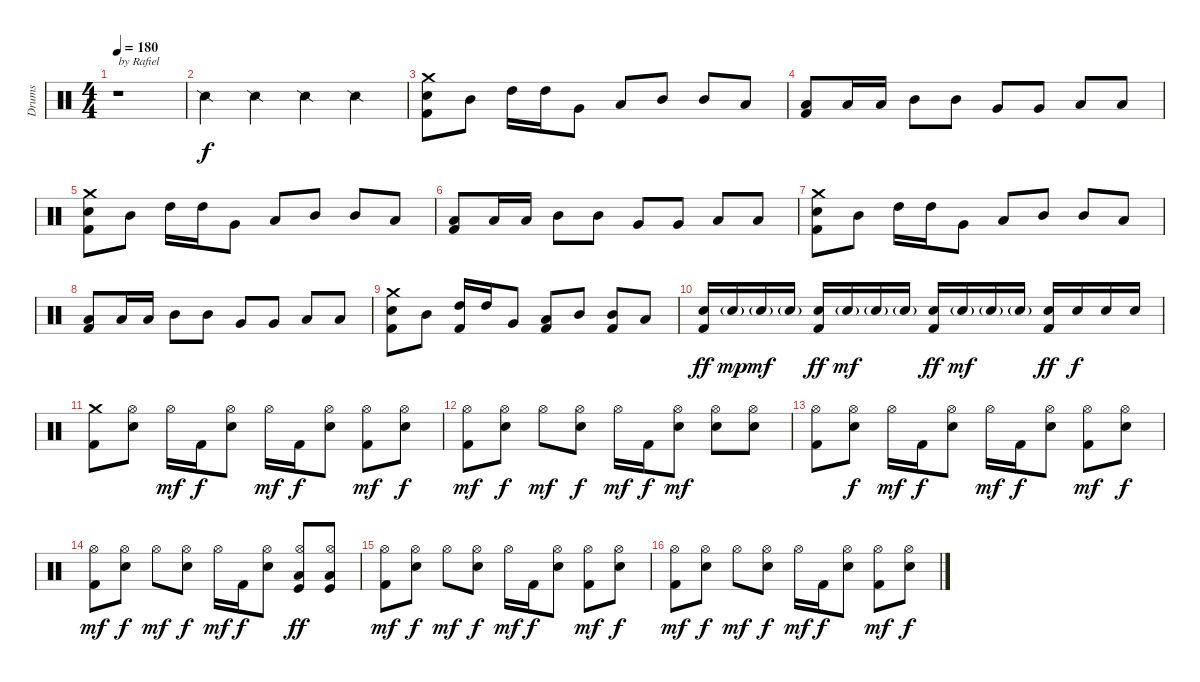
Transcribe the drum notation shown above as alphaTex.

\track ("Drums" "Drums") {instrument percussion}
\staff {score}
\articulation defaults
\ts (4 4)
\tempo 180
\clef neutral
\ks c
r.1{txt "by Rafiel" dy f} |
"Snare (side stick) 2".4 "Snare (side stick) 2".4 "Snare (side stick) 2".4 "Snare (side stick) 2".4 |
("Crash medium (hit)" "Electric Snare (hit)" "Kick (hit) 2").8 "Mid Tom (hit)".8 "High Tom (hit)".16 "High Tom (hit)".16 "Very Low Tom (hit)".8 "Low Tom (hit)".8 "Mid Tom (hit)".8 "Mid Tom (hit)".8 "Low Tom (hit)".8 |
("Low Tom (hit)" "Kick (hit) 2").8 "Low Tom (hit)".16 "Low Tom (hit)".16 "Mid Tom (hit)".8 "Mid Tom (hit)".8 "Very Low Tom (hit)".8 "Very Low Tom (hit)".8 "Low Tom (hit)".8 "Low Tom (hit)".8 |
("Crash medium (hit)" "Electric Snare (hit)" "Kick (hit) 2").8 "Mid Tom (hit)".8 "High Tom (hit)".16 "High Tom (hit)".16 "Very Low Tom (hit)".8 "Low Tom (hit)".8 "Mid Tom (hit)".8 "Mid Tom (hit)".8 "Low Tom (hit)".8 |
("Low Tom (hit)" "Kick (hit) 2").8 "Low Tom (hit)".16 "Low Tom (hit)".16 "Mid Tom (hit)".8 "Mid Tom (hit)".8 "Very Low Tom (hit)".8 "Very Low Tom (hit)".8 "Low Tom (hit)".8 "Low Tom (hit)".8 |
("Crash medium (hit)" "Electric Snare (hit)" "Kick (hit) 2").8 "Mid Tom (hit)".8 "High Tom (hit)".16 "High Tom (hit)".16 "Very Low Tom (hit)".8 "Low Tom (hit)".8 "Mid Tom (hit)".8 "Mid Tom (hit)".8 "Low Tom (hit)".8 |
("Low Tom (hit)" "Kick (hit) 2").8 "Low Tom (hit)".16 "Low Tom (hit)".16 "Mid Tom (hit)".8 "Mid Tom (hit)".8 "Very Low Tom (hit)".8 "Very Low Tom (hit)".8 "Low Tom (hit)".8 "Low Tom (hit)".8 |
("Crash medium (hit)" "Electric Snare (hit)" "Kick (hit) 2").8 "Mid Tom (hit)".8 ("High Tom (hit)" "Kick (hit) 2").16 "High Tom (hit)".16 "Very Low Tom (hit)".8 ("Low Tom (hit)" "Kick (hit) 2").8 "Mid Tom (hit)".8 ("Mid Tom (hit)" "Kick (hit) 2").8 "Low Tom (hit)".8 |
("Electric Snare (hit)" "Kick (hit) 2").16{dy ff} "Electric Snare (hit)"{g}.16{dy mp} "Electric Snare (hit)"{g}.16{dy mf} "Electric Snare (hit)"{g}.16 ("Electric Snare (hit)" "Kick (hit) 2").16{dy ff} "Electric Snare (hit)"{g}.16{dy mf} "Electric Snare (hit)"{g}.16 "Electric Snare (hit)"{g}.16 ("Electric Snare (hit)" "Kick (hit) 2").16{dy ff} "Electric Snare (hit)"{g}.16{dy mf} "Electric Snare (hit)"{g}.16 "Electric Snare (hit)"{g}.16 ("Electric Snare (hit)" "Kick (hit) 2").16{dy ff} "Electric Snare (hit)".16{dy f} "Electric Snare (hit)".16 "Electric Snare (hit)".16 |
("Crash medium (hit)" "Kick (hit) 2").8 ("Hi-Hat (open)" "Electric Snare (hit)").8 "Hi-Hat (open)".16{dy mf} "Kick (hit) 2".16{dy f} ("Hi-Hat (open)" "Electric Snare (hit)").8 "Hi-Hat (open)".16{dy mf} "Kick (hit) 2".16{dy f} ("Hi-Hat (open)" "Electric Snare (hit)").8 ("Hi-Hat (open)" "Kick (hit) 2").8{dy mf} ("Hi-Hat (open)" "Electric Snare (hit)").8{dy f} |
("Hi-Hat (open)" "Kick (hit) 2").8{dy mf} ("Hi-Hat (open)" "Electric Snare (hit)").8{dy f} "Hi-Hat (open)".8{dy mf} ("Hi-Hat (open)" "Electric Snare (hit)").8{dy f} "Hi-Hat (open)".16{dy mf} "Kick (hit) 2".16{dy f} ("Hi-Hat (open)" "Electric Snare (hit)").8{dy mf} ("Hi-Hat (open)" "Electric Snare (hit)").8 ("Hi-Hat (open)" "Electric Snare (hit)").8 |
("Hi-Hat (open)" "Kick (hit) 2").8 ("Hi-Hat (open)" "Electric Snare (hit)").8{dy f} "Hi-Hat (open)".16{dy mf} "Kick (hit) 2".16{dy f} ("Hi-Hat (open)" "Electric Snare (hit)").8 "Hi-Hat (open)".16{dy mf} "Kick (hit) 2".16{dy f} ("Hi-Hat (open)" "Electric Snare (hit)").8 ("Hi-Hat (open)" "Kick (hit) 2").8{dy mf} ("Hi-Hat (open)" "Electric Snare (hit)").8{dy f} |
("Hi-Hat (open)" "Kick (hit) 2").8{dy mf} ("Hi-Hat (open)" "Electric Snare (hit)").8{dy f} "Hi-Hat (open)".8{dy mf} ("Hi-Hat (open)" "Electric Snare (hit)").8{dy f} "Hi-Hat (open)".16{dy mf} "Kick (hit) 2".16{dy f} ("Hi-Hat (open)" "Electric Snare (hit)").8 ("Hi-Hat (open)" "Low Tom (hit)" "Kick (hit)").8{dy ff} ("Hi-Hat (open)" "Low Tom (hit)" "Kick (hit)").8 |
("Hi-Hat (open)" "Kick (hit) 2").8{dy mf} ("Hi-Hat (open)" "Electric Snare (hit)").8{dy f} "Hi-Hat (open)".8{dy mf} ("Hi-Hat (open)" "Electric Snare (hit)").8{dy f} "Hi-Hat (open)".16{dy mf} "Kick (hit) 2".16{dy f} ("Hi-Hat (open)" "Electric Snare (hit)").8 ("Hi-Hat (open)" "Kick (hit) 2").8{dy mf} ("Hi-Hat (open)" "Electric Snare (hit)").8{dy f} |
("Hi-Hat (open)" "Kick (hit) 2").8{dy mf} ("Hi-Hat (open)" "Electric Snare (hit)").8{dy f} "Hi-Hat (open)".8{dy mf} ("Hi-Hat (open)" "Electric Snare (hit)").8{dy f} "Hi-Hat (open)".16{dy mf} "Kick (hit) 2".16{dy f} ("Hi-Hat (open)" "Electric Snare (hit)").8 ("Hi-Hat (open)" "Kick (hit) 2").8{dy mf} ("Hi-Hat (open)" "Electric Snare (hit)").8{dy f}
